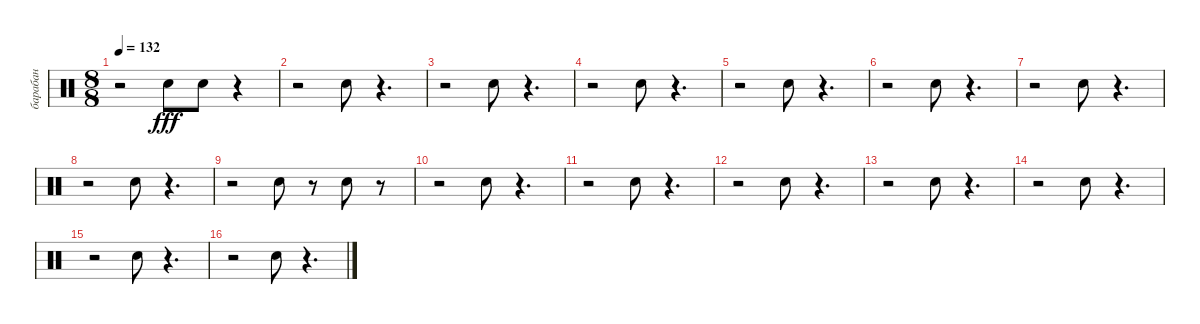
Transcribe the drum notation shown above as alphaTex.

\track ("барабан" "барабан") {instrument percussion}
\staff {score}
\articulation defaults
\ts (8 8)
\tempo 132
\clef neutral
\ks c
r.2{dy fff} "Snare (hit) 2".8 "Snare (hit) 2".8 r.4 |
r.2 "Snare (hit) 2".8 r.4{d} |
r.2 "Snare (hit) 2".8 r.4{d} |
r.2 "Snare (hit) 2".8 r.4{d} |
r.2 "Snare (hit) 2".8 r.4{d} |
r.2 "Snare (hit) 2".8 r.4{d} |
r.2 "Snare (hit) 2".8 r.4{d} |
r.2 "Snare (hit) 2".8 r.4{d} |
r.2 "Snare (hit) 2".8 r.8 "Snare (hit) 2".8 r.8 |
r.2 "Snare (hit) 2".8 r.4{d} |
r.2 "Snare (hit) 2".8 r.4{d} |
r.2 "Snare (hit) 2".8 r.4{d} |
r.2 "Snare (hit) 2".8 r.4{d} |
r.2 "Snare (hit) 2".8 r.4{d} |
r.2 "Snare (hit) 2".8 r.4{d} |
r.2 "Snare (hit) 2".8 r.4{d}
